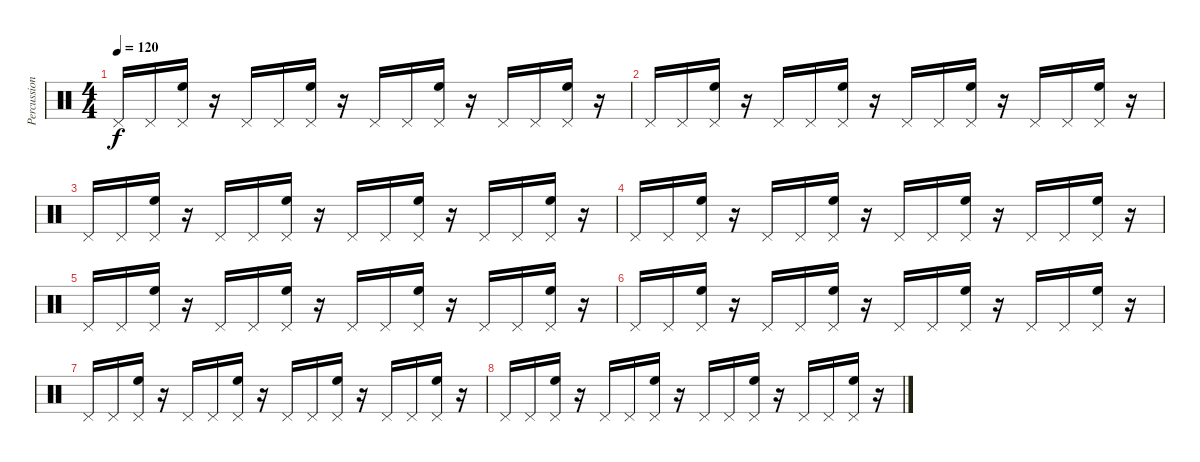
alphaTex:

\track ("Percussion" "Percussion") {instrument percussion}
\staff {score}
\articulation defaults
\ts (4 4)
\tempo 120
\clef neutral
\ks c "Pedal Hi-Hat (hit)".16{dy f} "Pedal Hi-Hat (hit)".16
("Pedal Hi-Hat (hit)" "High Floor Tom (hit)").16 r.16 "Pedal Hi-Hat (hit)".16 "Pedal Hi-Hat (hit)".16 ("Pedal Hi-Hat (hit)" "High Floor Tom (hit)").16 r.16 "Pedal Hi-Hat (hit)".16 "Pedal Hi-Hat (hit)".16 ("Pedal Hi-Hat (hit)" "High Floor Tom (hit)").16 r.16 "Pedal Hi-Hat (hit)".16 "Pedal Hi-Hat (hit)".16 ("Pedal Hi-Hat (hit)" "High Floor Tom (hit)").16 r.16 |
"Pedal Hi-Hat (hit)".16 "Pedal Hi-Hat (hit)".16 ("Pedal Hi-Hat (hit)" "High Floor Tom (hit)").16 r.16 "Pedal Hi-Hat (hit)".16 "Pedal Hi-Hat (hit)".16 ("Pedal Hi-Hat (hit)" "High Floor Tom (hit)").16 r.16 "Pedal Hi-Hat (hit)".16 "Pedal Hi-Hat (hit)".16 ("Pedal Hi-Hat (hit)" "High Floor Tom (hit)").16 r.16 "Pedal Hi-Hat (hit)".16 "Pedal Hi-Hat (hit)".16 ("Pedal Hi-Hat (hit)" "High Floor Tom (hit)").16 r.16 |
"Pedal Hi-Hat (hit)".16 "Pedal Hi-Hat (hit)".16 ("Pedal Hi-Hat (hit)" "High Floor Tom (hit)").16 r.16 "Pedal Hi-Hat (hit)".16 "Pedal Hi-Hat (hit)".16 ("Pedal Hi-Hat (hit)" "High Floor Tom (hit)").16 r.16 "Pedal Hi-Hat (hit)".16 "Pedal Hi-Hat (hit)".16 ("Pedal Hi-Hat (hit)" "High Floor Tom (hit)").16 r.16 "Pedal Hi-Hat (hit)".16 "Pedal Hi-Hat (hit)".16 ("Pedal Hi-Hat (hit)" "High Floor Tom (hit)").16 r.16 |
"Pedal Hi-Hat (hit)".16 "Pedal Hi-Hat (hit)".16 ("Pedal Hi-Hat (hit)" "High Floor Tom (hit)").16 r.16 "Pedal Hi-Hat (hit)".16 "Pedal Hi-Hat (hit)".16 ("Pedal Hi-Hat (hit)" "High Floor Tom (hit)").16 r.16 "Pedal Hi-Hat (hit)".16 "Pedal Hi-Hat (hit)".16 ("Pedal Hi-Hat (hit)" "High Floor Tom (hit)").16 r.16 "Pedal Hi-Hat (hit)".16 "Pedal Hi-Hat (hit)".16 ("Pedal Hi-Hat (hit)" "High Floor Tom (hit)").16 r.16 |
"Pedal Hi-Hat (hit)".16 "Pedal Hi-Hat (hit)".16 ("Pedal Hi-Hat (hit)" "High Floor Tom (hit)").16 r.16 "Pedal Hi-Hat (hit)".16 "Pedal Hi-Hat (hit)".16 ("Pedal Hi-Hat (hit)" "High Floor Tom (hit)").16 r.16 "Pedal Hi-Hat (hit)".16 "Pedal Hi-Hat (hit)".16 ("Pedal Hi-Hat (hit)" "High Floor Tom (hit)").16 r.16 "Pedal Hi-Hat (hit)".16 "Pedal Hi-Hat (hit)".16 ("Pedal Hi-Hat (hit)" "High Floor Tom (hit)").16 r.16 |
"Pedal Hi-Hat (hit)".16 "Pedal Hi-Hat (hit)".16 ("Pedal Hi-Hat (hit)" "High Floor Tom (hit)").16 r.16 "Pedal Hi-Hat (hit)".16 "Pedal Hi-Hat (hit)".16 ("Pedal Hi-Hat (hit)" "High Floor Tom (hit)").16 r.16 "Pedal Hi-Hat (hit)".16 "Pedal Hi-Hat (hit)".16 ("Pedal Hi-Hat (hit)" "High Floor Tom (hit)").16 r.16 "Pedal Hi-Hat (hit)".16 "Pedal Hi-Hat (hit)".16 ("Pedal Hi-Hat (hit)" "High Floor Tom (hit)").16 r.16 |
"Pedal Hi-Hat (hit)".16 "Pedal Hi-Hat (hit)".16 ("Pedal Hi-Hat (hit)" "High Floor Tom (hit)").16 r.16 "Pedal Hi-Hat (hit)".16 "Pedal Hi-Hat (hit)".16 ("Pedal Hi-Hat (hit)" "High Floor Tom (hit)").16 r.16 "Pedal Hi-Hat (hit)".16 "Pedal Hi-Hat (hit)".16 ("Pedal Hi-Hat (hit)" "High Floor Tom (hit)").16 r.16 "Pedal Hi-Hat (hit)".16 "Pedal Hi-Hat (hit)".16 ("Pedal Hi-Hat (hit)" "High Floor Tom (hit)").16 r.16 |
"Pedal Hi-Hat (hit)".16 "Pedal Hi-Hat (hit)".16 ("Pedal Hi-Hat (hit)" "High Floor Tom (hit)").16 r.16 "Pedal Hi-Hat (hit)".16 "Pedal Hi-Hat (hit)".16 ("Pedal Hi-Hat (hit)" "High Floor Tom (hit)").16 r.16 "Pedal Hi-Hat (hit)".16 "Pedal Hi-Hat (hit)".16 ("Pedal Hi-Hat (hit)" "High Floor Tom (hit)").16 r.16 "Pedal Hi-Hat (hit)".16 "Pedal Hi-Hat (hit)".16 ("Pedal Hi-Hat (hit)" "High Floor Tom (hit)").16 r.16
